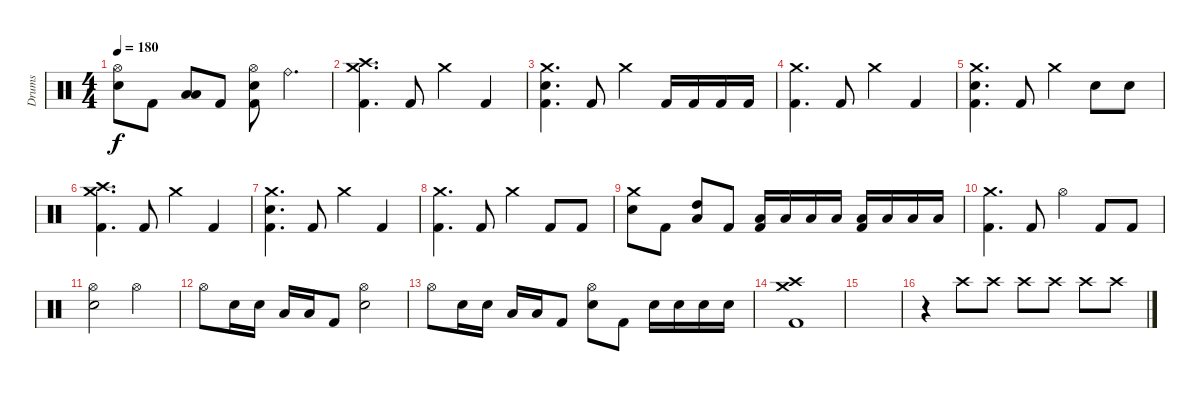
\track ("Drums" "Drums") {instrument percussion}
\staff {score}
\articulation defaults
\ts (4 4)
\tempo 180
\clef neutral
\ks c
("Hi-Hat (open)" "Snare (hit) 2").8{dy f} "Kick (hit) 2".8 ("Low Tom (hit)" "Low Floor Tom (hit)").8 "Kick (hit) 2".8 ("Hi-Hat (open)" "Snare (hit) 2" "Kick (hit) 2").8 "Ride (bell)".4{d} |
("Crash high (hit)" "Crash medium (hit)" "Kick (hit) 2").4{d} "Kick (hit) 2".8 "Crash medium (hit)".4 "Kick (hit) 2".4 |
("Crash medium (hit)" "Snare (hit) 2" "Kick (hit) 2").4{d} "Kick (hit) 2".8 "Crash medium (hit)".4 "Kick (hit) 2".16 "Kick (hit) 2".16 "Kick (hit) 2".16 "Kick (hit) 2".16 |
("Crash medium (hit)" "Kick (hit) 2").4{d} "Kick (hit) 2".8 "Crash medium (hit)".4 "Kick (hit) 2".4 |
("Crash medium (hit)" "Snare (hit) 2" "Kick (hit) 2").4{d} "Kick (hit) 2".8 "Crash medium (hit)".4 "Snare (hit) 2".8 "Snare (hit) 2".8 |
("Crash medium (hit)" "Crash high (hit)" "Kick (hit) 2").4{d} "Kick (hit) 2".8 "Crash medium (hit)".4 "Kick (hit) 2".4 |
("Crash medium (hit)" "Snare (hit) 2" "Kick (hit) 2").4{d} "Kick (hit) 2".8 "Crash medium (hit)".4 "Kick (hit) 2".4 |
("Crash medium (hit)" "Kick (hit) 2").4{d} "Kick (hit) 2".8 "Crash medium (hit)".4 "Kick (hit) 2".8 "Kick (hit) 2".8 |
("Crash medium (hit)" "Snare (hit) 2").8 "Kick (hit) 2".8 ("High Tom (hit)" "Low Tom (hit)").8 "Kick (hit) 2".8 ("Low Tom (hit)" "Kick (hit) 2").16 "Low Tom (hit)".16 "Low Tom (hit)".16 "Low Tom (hit)".16 ("Low Floor Tom (hit)" "Kick (hit) 2").16 "Low Floor Tom (hit)".16 "Low Floor Tom (hit)".16 "Low Floor Tom (hit)".16 |
("Crash medium (hit)" "Kick (hit) 2").4{d} "Kick (hit) 2".8 "Hi-Hat (open)".4 "Kick (hit) 2".8 "Kick (hit) 2".8 |
("Hi-Hat (open)" "Snare (hit) 2").2 "Hi-Hat (open)".2 |
"Hi-Hat (open)".8 "Snare (hit) 2".16 "Snare (hit) 2".16 "Low Tom (hit)".16 "Low Tom (hit)".16 "Kick (hit) 2".8 ("Hi-Hat (open)" "Snare (hit) 2").2 |
"Hi-Hat (open)".8 "Snare (hit) 2".16 "Snare (hit) 2".16 "Low Tom (hit)".16 "Low Tom (hit)".16 "Kick (hit) 2".8 ("Hi-Hat (open)" "Snare (hit) 2").8 "Kick (hit) 2".8 "Snare (hit) 2".16 "Snare (hit) 2".16 "Snare (hit) 2".16 "Snare (hit) 2".16 |
("Crash high (hit)" "Crash medium (hit)" "Kick (hit) 2").1 |
|
r.4 "Crash high (hit)".8 "Crash high (hit)".8 "Crash high (hit)".8 "Crash high (hit)".8 "Crash high (hit)".8 "Crash high (hit)".8
